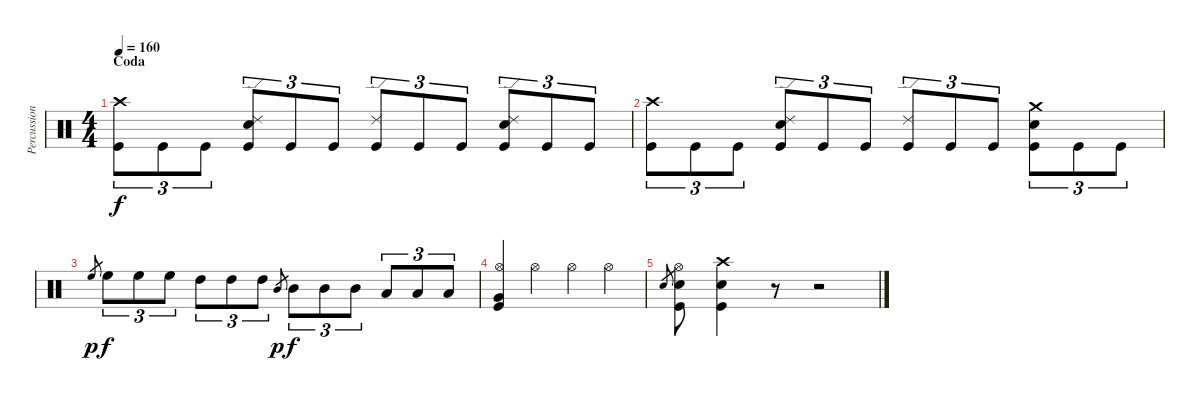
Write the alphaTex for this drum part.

\track ("Percussion" "Percussion") {instrument percussion}
\staff {score}
\articulation defaults
\ts (4 4)
\section ("" "Coda")
\tempo 160
\clef neutral
\ks c
("Crash high (hit)" "Kick (hit)").8{tu (3 2) dy f} "Kick (hit)".8{tu (3 2)} "Kick (hit)".8{tu (3 2)} ("Snare (hit) 2" "Ride (edge) 2" "Kick (hit)").8{tu (3 2)} "Kick (hit)".8{tu (3 2)} "Kick (hit)".8{tu (3 2)} ("Ride (edge) 2" "Kick (hit)").8{tu (3 2)} "Kick (hit)".8{tu (3 2)} "Kick (hit)".8{tu (3 2)} ("Snare (hit) 2" "Ride (edge) 2" "Kick (hit)").8{tu (3 2)} "Kick (hit)".8{tu (3 2)} "Kick (hit)".8{tu (3 2)} |
("Crash high (hit)" "Kick (hit)").8{tu (3 2)} "Kick (hit)".8{tu (3 2)} "Kick (hit)".8{tu (3 2)} ("Snare (hit) 2" "Ride (edge) 2" "Kick (hit)").8{tu (3 2)} "Kick (hit)".8{tu (3 2)} "Kick (hit)".8{tu (3 2)} ("Ride (edge) 2" "Kick (hit)").8{tu (3 2)} "Kick (hit)".8{tu (3 2)} "Kick (hit)".8{tu (3 2)} ("Snare (hit) 2" "Crash medium (hit)" "Kick (hit)").8{tu (3 2)} "Kick (hit)".8{tu (3 2)} "Kick (hit)".8{tu (3 2)} |
"High Floor Tom (hit)".8{gr dy p} "High Floor Tom (hit)".8{tu (3 2) dy f} "High Floor Tom (hit)".8{tu (3 2)} "High Floor Tom (hit)".8{tu (3 2)} "High Tom (hit)".8{tu (3 2)} "High Tom (hit)".8{tu (3 2)} "High Tom (hit)".8{tu (3 2)} "Mid Tom (hit)".8{gr dy p} "Mid Tom (hit)".8{tu (3 2) dy f} "Mid Tom (hit)".8{tu (3 2)} "Mid Tom (hit)".8{tu (3 2)} "Low Tom (hit)".8{tu (3 2)} "Low Tom (hit)".8{tu (3 2)} "Low Tom (hit)".8{tu (3 2)} |
("Hi-Hat (open)" "Very Low Tom (hit)" "Kick (hit)").4 "Hi-Hat (open)".4 "Hi-Hat (open)".4 "Hi-Hat (open)".4 |
"Snare (hit) 2".8{gr} ("Hi-Hat (open)" "Snare (hit) 2" "Kick (hit)").8 ("Crash high (hit)" "Snare (hit) 2" "Kick (hit)").4 r.8 r.2
